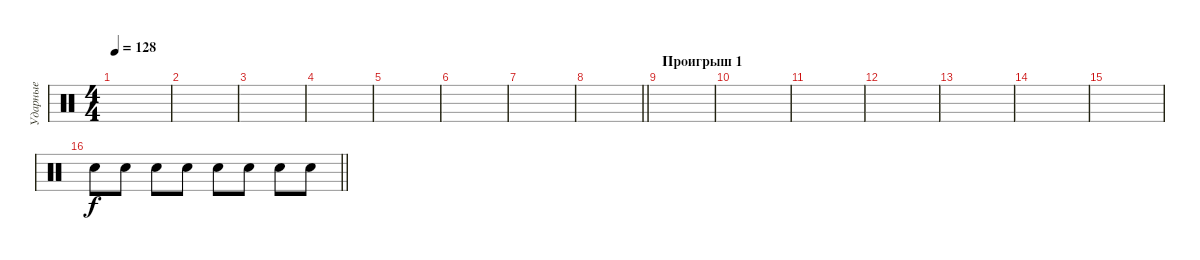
\track ("Ударные" "Ударные") {instrument percussion}
\staff {score}
\articulation defaults
\ts (4 4)
\tempo 128
\clef neutral
\ks c
|
|
|
|
|
|
|
\barLineRight lightlight
|
\section ("" "Проигрыш 1")
|
|
|
|
|
|
|
\barLineRight lightlight "Electric Snare (hit)".8{volume 9} "Electric Snare (hit)".8 "Electric Snare (hit)".8 "Electric Snare (hit)".8 "Electric Snare (hit)".8 "Electric Snare (hit)".8 "Electric Snare (hit)".8 "Electric Snare (hit)".8
